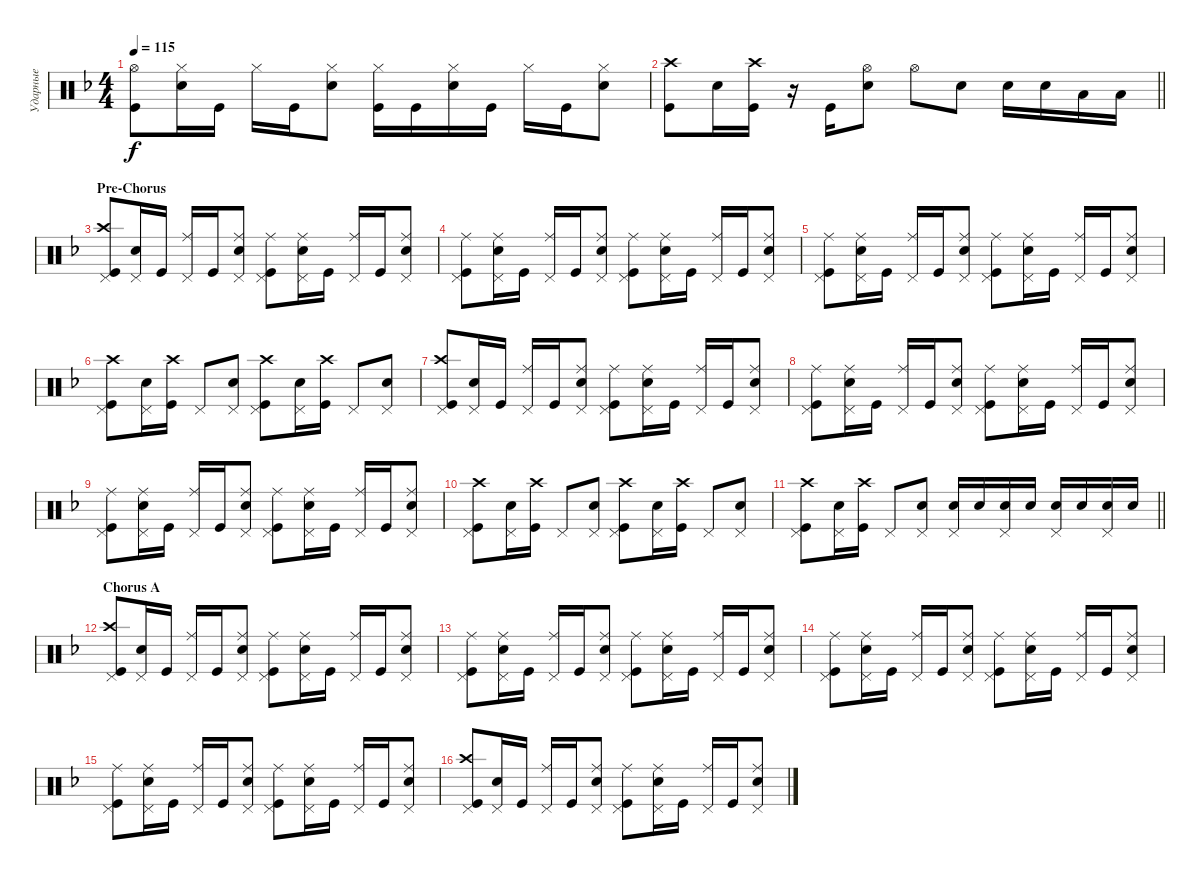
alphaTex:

\track ("Ударные" "Ударные") {instrument percussion}
\staff {score}
\articulation defaults
\ts (4 4)
\tempo 115
\clef neutral
\ks dminor
("Kick (hit)" "Hi-Hat (open)").8{dy f} ("Snare (hit) 2" "Hi-Hat (closed)").16 "Kick (hit)".16 "Hi-Hat (closed)".16 "Kick (hit)".16 ("Snare (hit) 2" "Hi-Hat (closed)").8 ("Kick (hit)" "Hi-Hat (closed)").16 "Kick (hit)".16 ("Snare (hit) 2" "Hi-Hat (closed)").16 "Kick (hit)".16 "Hi-Hat (closed)".16 "Kick (hit)".16 ("Snare (hit) 2" "Hi-Hat (closed)").8 |
\barLineRight lightlight
("Kick (hit)" "Crash high (hit)").8 "Snare (hit) 2".16 ("Kick (hit)" "Crash high (hit)").16 r.16 "Kick (hit)".16 ("Snare (hit) 2" "Hi-Hat (open)").8 "Hi-Hat (open)".8 "Snare (hit) 2".8 "Snare (hit) 2".16 "Snare (hit) 2".16 "Low Tom (hit)".16 "Low Tom (hit)".16 |
\section ("" "Pre-Chorus")
("Kick (hit)" "Pedal Hi-Hat (hit)" "Crash high (hit)").8 ("Snare (hit) 2" "Pedal Hi-Hat (hit)").16 "Kick (hit)".16 ("Ride (middle)" "Pedal Hi-Hat (hit)").16 "Kick (hit)".16 ("Snare (hit) 2" "Ride (middle)" "Pedal Hi-Hat (hit)").8 ("Kick (hit)" "Pedal Hi-Hat (hit)" "Ride (middle)").8 ("Snare (hit) 2" "Ride (middle)" "Pedal Hi-Hat (hit)").16 "Kick (hit)".16 ("Ride (middle)" "Pedal Hi-Hat (hit)").16 "Kick (hit)".16 ("Snare (hit) 2" "Ride (middle)" "Pedal Hi-Hat (hit)").8 |
("Kick (hit)" "Pedal Hi-Hat (hit)" "Ride (middle)").8 ("Snare (hit) 2" "Ride (middle)" "Pedal Hi-Hat (hit)").16 "Kick (hit)".16 ("Ride (middle)" "Pedal Hi-Hat (hit)").16 "Kick (hit)".16 ("Snare (hit) 2" "Ride (middle)" "Pedal Hi-Hat (hit)").8 ("Kick (hit)" "Pedal Hi-Hat (hit)" "Ride (middle)").8 ("Snare (hit) 2" "Ride (middle)" "Pedal Hi-Hat (hit)").16 "Kick (hit)".16 ("Ride (middle)" "Pedal Hi-Hat (hit)").16 "Kick (hit)".16 ("Snare (hit) 2" "Ride (middle)" "Pedal Hi-Hat (hit)").8 |
("Kick (hit)" "Pedal Hi-Hat (hit)" "Ride (middle)").8 ("Snare (hit) 2" "Ride (middle)" "Pedal Hi-Hat (hit)").16 "Kick (hit)".16 ("Ride (middle)" "Pedal Hi-Hat (hit)").16 "Kick (hit)".16 ("Snare (hit) 2" "Ride (middle)" "Pedal Hi-Hat (hit)").8 ("Kick (hit)" "Pedal Hi-Hat (hit)" "Ride (middle)").8 ("Snare (hit) 2" "Ride (middle)" "Pedal Hi-Hat (hit)").16 "Kick (hit)".16 ("Ride (middle)" "Pedal Hi-Hat (hit)").16 "Kick (hit)".16 ("Snare (hit) 2" "Ride (middle)" "Pedal Hi-Hat (hit)").8 |
("Kick (hit)" "Pedal Hi-Hat (hit)" "Crash high (hit)").8 ("Snare (hit) 2" "Pedal Hi-Hat (hit)").16 ("Kick (hit)" "Crash high (hit)").16 "Pedal Hi-Hat (hit)".8 ("Snare (hit) 2" "Pedal Hi-Hat (hit)").8 ("Kick (hit)" "Pedal Hi-Hat (hit)" "Crash high (hit)").8 ("Snare (hit) 2" "Pedal Hi-Hat (hit)").16 ("Kick (hit)" "Crash high (hit)").16 "Pedal Hi-Hat (hit)".8 ("Snare (hit) 2" "Pedal Hi-Hat (hit)").8 |
("Kick (hit)" "Pedal Hi-Hat (hit)" "Crash high (hit)").8 ("Snare (hit) 2" "Pedal Hi-Hat (hit)").16 "Kick (hit)".16 ("Ride (middle)" "Pedal Hi-Hat (hit)").16 "Kick (hit)".16 ("Snare (hit) 2" "Ride (middle)" "Pedal Hi-Hat (hit)").8 ("Kick (hit)" "Pedal Hi-Hat (hit)" "Ride (middle)").8 ("Snare (hit) 2" "Ride (middle)" "Pedal Hi-Hat (hit)").16 "Kick (hit)".16 ("Ride (middle)" "Pedal Hi-Hat (hit)").16 "Kick (hit)".16 ("Snare (hit) 2" "Ride (middle)" "Pedal Hi-Hat (hit)").8 |
("Kick (hit)" "Pedal Hi-Hat (hit)" "Ride (middle)").8 ("Snare (hit) 2" "Ride (middle)" "Pedal Hi-Hat (hit)").16 "Kick (hit)".16 ("Ride (middle)" "Pedal Hi-Hat (hit)").16 "Kick (hit)".16 ("Snare (hit) 2" "Ride (middle)" "Pedal Hi-Hat (hit)").8 ("Kick (hit)" "Pedal Hi-Hat (hit)" "Ride (middle)").8 ("Snare (hit) 2" "Ride (middle)" "Pedal Hi-Hat (hit)").16 "Kick (hit)".16 ("Ride (middle)" "Pedal Hi-Hat (hit)").16 "Kick (hit)".16 ("Snare (hit) 2" "Ride (middle)" "Pedal Hi-Hat (hit)").8 |
("Kick (hit)" "Pedal Hi-Hat (hit)" "Ride (middle)").8 ("Snare (hit) 2" "Ride (middle)" "Pedal Hi-Hat (hit)").16 "Kick (hit)".16 ("Ride (middle)" "Pedal Hi-Hat (hit)").16 "Kick (hit)".16 ("Snare (hit) 2" "Ride (middle)" "Pedal Hi-Hat (hit)").8 ("Kick (hit)" "Pedal Hi-Hat (hit)" "Ride (middle)").8 ("Snare (hit) 2" "Ride (middle)" "Pedal Hi-Hat (hit)").16 "Kick (hit)".16 ("Ride (middle)" "Pedal Hi-Hat (hit)").16 "Kick (hit)".16 ("Snare (hit) 2" "Ride (middle)" "Pedal Hi-Hat (hit)").8 |
("Kick (hit)" "Pedal Hi-Hat (hit)" "Crash high (hit)").8 ("Snare (hit) 2" "Pedal Hi-Hat (hit)").16 ("Kick (hit)" "Crash high (hit)").16 "Pedal Hi-Hat (hit)".8 ("Snare (hit) 2" "Pedal Hi-Hat (hit)").8 ("Kick (hit)" "Pedal Hi-Hat (hit)" "Crash high (hit)").8 ("Snare (hit) 2" "Pedal Hi-Hat (hit)").16 ("Kick (hit)" "Crash high (hit)").16 "Pedal Hi-Hat (hit)".8 ("Snare (hit) 2" "Pedal Hi-Hat (hit)").8 |
\barLineRight lightlight
("Kick (hit)" "Pedal Hi-Hat (hit)" "Crash high (hit)").8 ("Snare (hit) 2" "Pedal Hi-Hat (hit)").16 ("Kick (hit)" "Crash high (hit)").16 "Pedal Hi-Hat (hit)".8 ("Snare (hit) 2" "Pedal Hi-Hat (hit)").8 ("Snare (hit) 2" "Pedal Hi-Hat (hit)").16 "Snare (hit) 2".16 ("Snare (hit) 2" "Pedal Hi-Hat (hit)").16 "Snare (hit) 2".16 ("Snare (hit) 2" "Pedal Hi-Hat (hit)").16 "Snare (hit) 2".16 ("Snare (hit) 2" "Pedal Hi-Hat (hit)").16 "Snare (hit) 2".16 |
\section ("" "Chorus A")
("Kick (hit)" "Pedal Hi-Hat (hit)" "Crash high (hit)").8 ("Snare (hit) 2" "Pedal Hi-Hat (hit)").16 "Kick (hit)".16 ("Ride (middle)" "Pedal Hi-Hat (hit)").16 "Kick (hit)".16 ("Snare (hit) 2" "Ride (middle)" "Pedal Hi-Hat (hit)").8 ("Kick (hit)" "Pedal Hi-Hat (hit)" "Ride (middle)").8 ("Snare (hit) 2" "Ride (middle)" "Pedal Hi-Hat (hit)").16 "Kick (hit)".16 ("Ride (middle)" "Pedal Hi-Hat (hit)").16 "Kick (hit)".16 ("Snare (hit) 2" "Ride (middle)" "Pedal Hi-Hat (hit)").8 |
("Kick (hit)" "Pedal Hi-Hat (hit)" "Ride (middle)").8 ("Snare (hit) 2" "Ride (middle)" "Pedal Hi-Hat (hit)").16 "Kick (hit)".16 ("Ride (middle)" "Pedal Hi-Hat (hit)").16 "Kick (hit)".16 ("Snare (hit) 2" "Ride (middle)" "Pedal Hi-Hat (hit)").8 ("Kick (hit)" "Pedal Hi-Hat (hit)" "Ride (middle)").8 ("Snare (hit) 2" "Ride (middle)" "Pedal Hi-Hat (hit)").16 "Kick (hit)".16 ("Ride (middle)" "Pedal Hi-Hat (hit)").16 "Kick (hit)".16 ("Snare (hit) 2" "Ride (middle)" "Pedal Hi-Hat (hit)").8 |
("Kick (hit)" "Pedal Hi-Hat (hit)" "Ride (middle)").8 ("Snare (hit) 2" "Ride (middle)" "Pedal Hi-Hat (hit)").16 "Kick (hit)".16 ("Ride (middle)" "Pedal Hi-Hat (hit)").16 "Kick (hit)".16 ("Snare (hit) 2" "Ride (middle)" "Pedal Hi-Hat (hit)").8 ("Kick (hit)" "Pedal Hi-Hat (hit)" "Ride (middle)").8 ("Snare (hit) 2" "Ride (middle)" "Pedal Hi-Hat (hit)").16 "Kick (hit)".16 ("Ride (middle)" "Pedal Hi-Hat (hit)").16 "Kick (hit)".16 ("Snare (hit) 2" "Ride (middle)" "Pedal Hi-Hat (hit)").8 |
("Kick (hit)" "Pedal Hi-Hat (hit)" "Ride (middle)").8 ("Snare (hit) 2" "Ride (middle)" "Pedal Hi-Hat (hit)").16 "Kick (hit)".16 ("Ride (middle)" "Pedal Hi-Hat (hit)").16 "Kick (hit)".16 ("Snare (hit) 2" "Ride (middle)" "Pedal Hi-Hat (hit)").8 ("Kick (hit)" "Pedal Hi-Hat (hit)" "Ride (middle)").8 ("Snare (hit) 2" "Ride (middle)" "Pedal Hi-Hat (hit)").16 "Kick (hit)".16 ("Ride (middle)" "Pedal Hi-Hat (hit)").16 "Kick (hit)".16 ("Snare (hit) 2" "Ride (middle)" "Pedal Hi-Hat (hit)").8 |
("Kick (hit)" "Pedal Hi-Hat (hit)" "Crash high (hit)").8 ("Snare (hit) 2" "Pedal Hi-Hat (hit)").16 "Kick (hit)".16 ("Ride (middle)" "Pedal Hi-Hat (hit)").16 "Kick (hit)".16 ("Snare (hit) 2" "Ride (middle)" "Pedal Hi-Hat (hit)").8 ("Kick (hit)" "Pedal Hi-Hat (hit)" "Ride (middle)").8 ("Snare (hit) 2" "Ride (middle)" "Pedal Hi-Hat (hit)").16 "Kick (hit)".16 ("Ride (middle)" "Pedal Hi-Hat (hit)").16 "Kick (hit)".16 ("Snare (hit) 2" "Ride (middle)" "Pedal Hi-Hat (hit)").8
